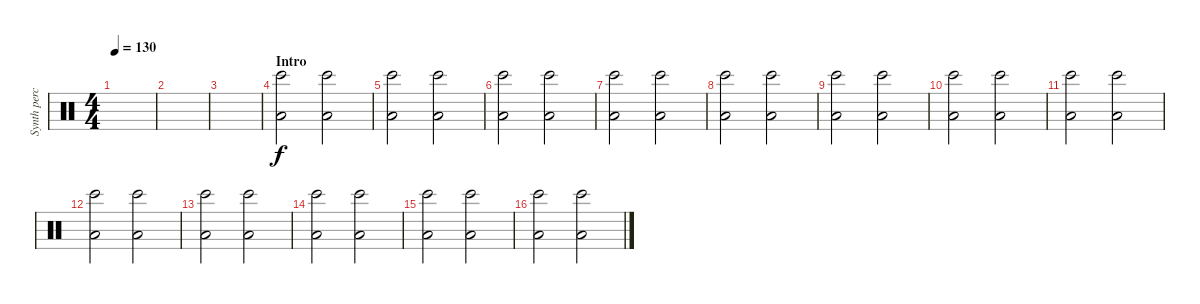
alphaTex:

\track ("Synth perc" "Synth perc") {instrument percussion}
\staff {score}
\articulation defaults
\ts (4 4)
\tempo 130
\clef neutral
\ks c
|
|
|
\section ("" "Intro")
("Bongo High (hit)" "Low Tom (hit)").2 ("Bongo High (hit)" "Low Tom (hit)").2 |
("Bongo High (hit)" "Low Tom (hit)").2 ("Bongo High (hit)" "Low Tom (hit)").2 |
("Bongo High (hit)" "Low Tom (hit)").2 ("Bongo High (hit)" "Low Tom (hit)").2 |
("Bongo High (hit)" "Low Tom (hit)").2 ("Bongo High (hit)" "Low Tom (hit)").2 |
("Bongo High (hit)" "Low Tom (hit)").2 ("Bongo High (hit)" "Low Tom (hit)").2 |
("Bongo High (hit)" "Low Tom (hit)").2 ("Bongo High (hit)" "Low Tom (hit)").2 |
("Bongo High (hit)" "Low Tom (hit)").2 ("Bongo High (hit)" "Low Tom (hit)").2 |
("Bongo High (hit)" "Low Tom (hit)").2 ("Bongo High (hit)" "Low Tom (hit)").2 |
("Bongo High (hit)" "Low Tom (hit)").2 ("Bongo High (hit)" "Low Tom (hit)").2 |
("Bongo High (hit)" "Low Tom (hit)").2 ("Bongo High (hit)" "Low Tom (hit)").2 |
("Bongo High (hit)" "Low Tom (hit)").2 ("Bongo High (hit)" "Low Tom (hit)").2 |
("Bongo High (hit)" "Low Tom (hit)").2 ("Bongo High (hit)" "Low Tom (hit)").2 |
("Bongo High (hit)" "Low Tom (hit)").2 ("Bongo High (hit)" "Low Tom (hit)").2
